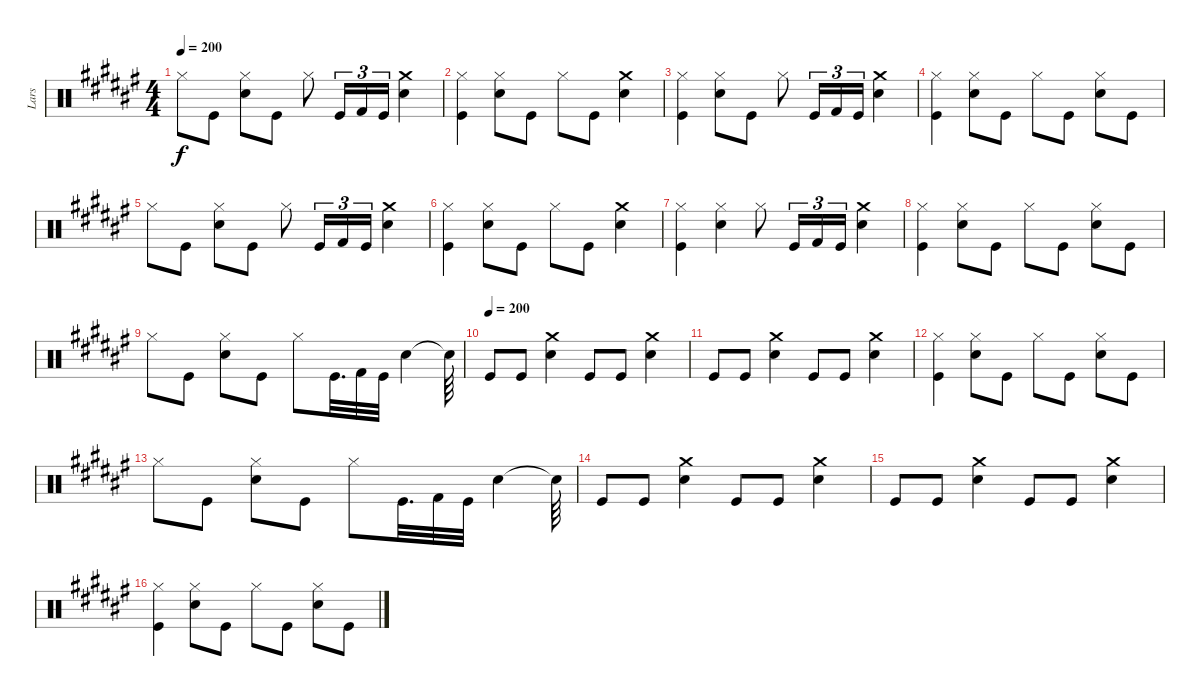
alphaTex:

\track ("Lars" "Lars") {instrument percussion}
\staff {score}
\articulation defaults
\ts (4 4)
\tempo 200
\clef neutral
\ks f# "Hi-Hat (closed)".8{dy f} "Kick (hit)".8
("Snare (hit) 2" "Hi-Hat (closed)").8 "Kick (hit)".8 "Hi-Hat (closed)".8 "Kick (hit)".16{tu (3 2)} "Kick (hit) 2".16{tu (3 2)} "Kick (hit)".16{tu (3 2)} ("Crash medium (hit)" "Snare (hit) 2").4 |
("Hi-Hat (closed)" "Kick (hit)").4 ("Snare (hit) 2" "Hi-Hat (closed)").8 "Kick (hit)".8 "Hi-Hat (closed)".8 "Kick (hit)".8 ("Crash medium (hit)" "Snare (hit) 2").4 |
("Kick (hit)" "Hi-Hat (closed)").4 ("Snare (hit) 2" "Hi-Hat (closed)").8 "Kick (hit)".8 "Hi-Hat (closed)".8 "Kick (hit)".16{tu (3 2)} "Kick (hit) 2".16{tu (3 2)} "Kick (hit)".16{tu (3 2)} ("Crash medium (hit)" "Snare (hit) 2").4 |
("Hi-Hat (closed)" "Kick (hit)").4 ("Snare (hit) 2" "Hi-Hat (closed)").8 "Kick (hit)".8 "Hi-Hat (closed)".8 "Kick (hit)".8 ("Snare (hit) 2" "Hi-Hat (closed)").8 "Kick (hit)".8 |
"Hi-Hat (closed)".8 "Kick (hit)".8 ("Snare (hit) 2" "Hi-Hat (closed)").8 "Kick (hit)".8 "Hi-Hat (closed)".8 "Kick (hit)".16{tu (3 2)} "Kick (hit) 2".16{tu (3 2)} "Kick (hit)".16{tu (3 2)} ("Crash medium (hit)" "Snare (hit) 2").4 |
("Hi-Hat (closed)" "Kick (hit)").4 ("Snare (hit) 2" "Hi-Hat (closed)").8 "Kick (hit)".8 "Hi-Hat (closed)".8 "Kick (hit)".8 ("Crash medium (hit)" "Snare (hit) 2").4 |
("Hi-Hat (closed)" "Kick (hit)").4 ("Snare (hit) 2" "Hi-Hat (closed)").4 "Hi-Hat (closed)".8 "Kick (hit)".16{tu (3 2)} "Kick (hit) 2".16{tu (3 2)} "Kick (hit)".16{tu (3 2)} ("Crash medium (hit)" "Snare (hit) 2").4 |
("Hi-Hat (closed)" "Kick (hit)").4 ("Hi-Hat (closed)" "Snare (hit) 2").8 "Kick (hit)".8 "Hi-Hat (closed)".8 "Kick (hit)".8 ("Snare (hit) 2" "Hi-Hat (closed)").8 "Kick (hit)".8 |
"Hi-Hat (closed)".8 "Kick (hit)".8 ("Snare (hit) 2" "Hi-Hat (closed)").8 "Kick (hit)".8 "Hi-Hat (closed)".8 "Kick (hit)".32{d} "Kick (hit) 2".32 "Kick (hit)".32 "Snare (hit) 2".4 "Snare (hit)"{t}.64 |
\tempo (200)
"Kick (hit)".8 "Kick (hit)".8 ("Crash medium (hit)" "Snare (hit) 2").4 "Kick (hit)".8 "Kick (hit)".8 ("Snare (hit) 2" "Crash medium (hit)").4 |
"Kick (hit)".8 "Kick (hit)".8 ("Snare (hit) 2" "Crash medium (hit)").4 "Kick (hit)".8 "Kick (hit)".8 ("Snare (hit) 2" "Crash medium (hit)").4 |
("Hi-Hat (closed)" "Kick (hit)").4 ("Snare (hit) 2" "Hi-Hat (closed)").8 "Kick (hit)".8 "Hi-Hat (closed)".8 "Kick (hit)".8 ("Snare (hit) 2" "Hi-Hat (closed)").8 "Kick (hit)".8 |
"Hi-Hat (closed)".8 "Kick (hit)".8 ("Snare (hit) 2" "Hi-Hat (closed)").8 "Kick (hit)".8 "Hi-Hat (closed)".8 "Kick (hit)".32{d} "Kick (hit) 2".32 "Kick (hit)".32 "Snare (hit) 2".4 "Snare (hit)"{t}.64 |
"Kick (hit)".8 "Kick (hit)".8 ("Crash medium (hit)" "Snare (hit) 2").4 "Kick (hit)".8 "Kick (hit)".8 ("Snare (hit) 2" "Crash medium (hit)").4 |
"Kick (hit)".8 "Kick (hit)".8 ("Snare (hit) 2" "Crash medium (hit)").4 "Kick (hit)".8 "Kick (hit)".8 ("Snare (hit) 2" "Crash medium (hit)").4 |
("Hi-Hat (closed)" "Kick (hit)").4 ("Snare (hit) 2" "Hi-Hat (closed)").8 "Kick (hit)".8 "Hi-Hat (closed)".8 "Kick (hit)".8 ("Snare (hit) 2" "Hi-Hat (closed)").8 "Kick (hit)".8
